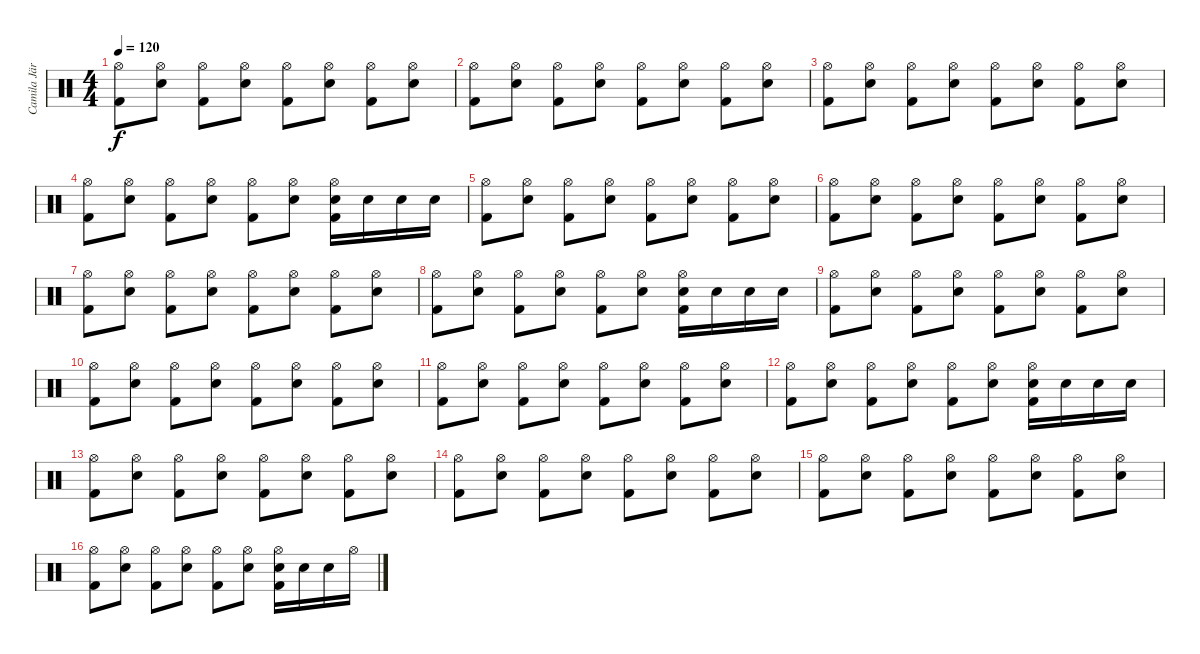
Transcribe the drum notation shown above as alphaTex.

\track ("Camila Jära" "Camila Jär") {instrument percussion}
\staff {score}
\articulation defaults
\ts (4 4)
\tempo 120
\clef neutral
\ks c
("Hi-Hat (open)" "Kick (hit) 2").8{dy f} ("Hi-Hat (open)" "Snare (hit) 2").8 ("Hi-Hat (open)" "Kick (hit) 2").8 ("Hi-Hat (open)" "Snare (hit) 2").8 ("Hi-Hat (open)" "Kick (hit) 2").8 ("Hi-Hat (open)" "Snare (hit) 2").8 ("Hi-Hat (open)" "Kick (hit) 2").8 ("Hi-Hat (open)" "Snare (hit) 2").8 |
("Hi-Hat (open)" "Kick (hit) 2").8 ("Hi-Hat (open)" "Snare (hit) 2").8 ("Hi-Hat (open)" "Kick (hit) 2").8 ("Hi-Hat (open)" "Snare (hit) 2").8 ("Hi-Hat (open)" "Kick (hit) 2").8 ("Hi-Hat (open)" "Snare (hit) 2").8 ("Hi-Hat (open)" "Kick (hit) 2").8 ("Hi-Hat (open)" "Snare (hit) 2").8 |
("Hi-Hat (open)" "Kick (hit) 2").8 ("Hi-Hat (open)" "Snare (hit) 2").8 ("Hi-Hat (open)" "Kick (hit) 2").8 ("Hi-Hat (open)" "Snare (hit) 2").8 ("Hi-Hat (open)" "Kick (hit) 2").8 ("Hi-Hat (open)" "Snare (hit) 2").8 ("Hi-Hat (open)" "Kick (hit) 2").8 ("Hi-Hat (open)" "Snare (hit) 2").8 |
("Hi-Hat (open)" "Kick (hit) 2").8 ("Hi-Hat (open)" "Snare (hit) 2").8 ("Hi-Hat (open)" "Kick (hit) 2").8 ("Hi-Hat (open)" "Snare (hit) 2").8 ("Hi-Hat (open)" "Kick (hit) 2").8 ("Hi-Hat (open)" "Snare (hit) 2").8 ("Hi-Hat (open)" "Snare (hit) 2" "Kick (hit) 2").16 "Snare (hit) 2".16 "Snare (hit) 2".16 "Snare (hit) 2".16 |
("Hi-Hat (open)" "Kick (hit) 2").8 ("Hi-Hat (open)" "Snare (hit) 2").8 ("Hi-Hat (open)" "Kick (hit) 2").8 ("Hi-Hat (open)" "Snare (hit) 2").8 ("Hi-Hat (open)" "Kick (hit) 2").8 ("Hi-Hat (open)" "Snare (hit) 2").8 ("Hi-Hat (open)" "Kick (hit) 2").8 ("Hi-Hat (open)" "Snare (hit) 2").8 |
("Hi-Hat (open)" "Kick (hit) 2").8 ("Hi-Hat (open)" "Snare (hit) 2").8 ("Hi-Hat (open)" "Kick (hit) 2").8 ("Hi-Hat (open)" "Snare (hit) 2").8 ("Hi-Hat (open)" "Kick (hit) 2").8 ("Hi-Hat (open)" "Snare (hit) 2").8 ("Hi-Hat (open)" "Kick (hit) 2").8 ("Hi-Hat (open)" "Snare (hit) 2").8 |
("Hi-Hat (open)" "Kick (hit) 2").8 ("Hi-Hat (open)" "Snare (hit) 2").8 ("Hi-Hat (open)" "Kick (hit) 2").8 ("Hi-Hat (open)" "Snare (hit) 2").8 ("Hi-Hat (open)" "Kick (hit) 2").8 ("Hi-Hat (open)" "Snare (hit) 2").8 ("Hi-Hat (open)" "Kick (hit) 2").8 ("Hi-Hat (open)" "Snare (hit) 2").8 |
("Hi-Hat (open)" "Kick (hit) 2").8 ("Hi-Hat (open)" "Snare (hit) 2").8 ("Hi-Hat (open)" "Kick (hit) 2").8 ("Hi-Hat (open)" "Snare (hit) 2").8 ("Hi-Hat (open)" "Kick (hit) 2").8 ("Hi-Hat (open)" "Snare (hit) 2").8 ("Hi-Hat (open)" "Snare (hit) 2" "Kick (hit) 2").16 "Snare (hit) 2".16 "Snare (hit) 2".16 "Snare (hit) 2".16 |
("Hi-Hat (open)" "Kick (hit) 2").8 ("Hi-Hat (open)" "Snare (hit) 2").8 ("Hi-Hat (open)" "Kick (hit) 2").8 ("Hi-Hat (open)" "Snare (hit) 2").8 ("Hi-Hat (open)" "Kick (hit) 2").8 ("Hi-Hat (open)" "Snare (hit) 2").8 ("Hi-Hat (open)" "Kick (hit) 2").8 ("Hi-Hat (open)" "Snare (hit) 2").8 |
("Hi-Hat (open)" "Kick (hit) 2").8 ("Hi-Hat (open)" "Snare (hit) 2").8 ("Hi-Hat (open)" "Kick (hit) 2").8 ("Hi-Hat (open)" "Snare (hit) 2").8 ("Hi-Hat (open)" "Kick (hit) 2").8 ("Hi-Hat (open)" "Snare (hit) 2").8 ("Hi-Hat (open)" "Kick (hit) 2").8 ("Hi-Hat (open)" "Snare (hit) 2").8 |
("Hi-Hat (open)" "Kick (hit) 2").8 ("Hi-Hat (open)" "Snare (hit) 2").8 ("Hi-Hat (open)" "Kick (hit) 2").8 ("Hi-Hat (open)" "Snare (hit) 2").8 ("Hi-Hat (open)" "Kick (hit) 2").8 ("Hi-Hat (open)" "Snare (hit) 2").8 ("Hi-Hat (open)" "Kick (hit) 2").8 ("Hi-Hat (open)" "Snare (hit) 2").8 |
("Hi-Hat (open)" "Kick (hit) 2").8 ("Hi-Hat (open)" "Snare (hit) 2").8 ("Hi-Hat (open)" "Kick (hit) 2").8 ("Hi-Hat (open)" "Snare (hit) 2").8 ("Hi-Hat (open)" "Kick (hit) 2").8 ("Hi-Hat (open)" "Snare (hit) 2").8 ("Hi-Hat (open)" "Snare (hit) 2" "Kick (hit) 2").16 "Snare (hit) 2".16 "Snare (hit) 2".16 "Snare (hit) 2".16 |
("Hi-Hat (open)" "Kick (hit) 2").8 ("Hi-Hat (open)" "Snare (hit) 2").8 ("Hi-Hat (open)" "Kick (hit) 2").8 ("Hi-Hat (open)" "Snare (hit) 2").8 ("Hi-Hat (open)" "Kick (hit) 2").8 ("Hi-Hat (open)" "Snare (hit) 2").8 ("Hi-Hat (open)" "Kick (hit) 2").8 ("Hi-Hat (open)" "Snare (hit) 2").8 |
("Hi-Hat (open)" "Kick (hit) 2").8 ("Hi-Hat (open)" "Snare (hit) 2").8 ("Hi-Hat (open)" "Kick (hit) 2").8 ("Hi-Hat (open)" "Snare (hit) 2").8 ("Hi-Hat (open)" "Kick (hit) 2").8 ("Hi-Hat (open)" "Snare (hit) 2").8 ("Hi-Hat (open)" "Kick (hit) 2").8 ("Hi-Hat (open)" "Snare (hit) 2").8 |
("Hi-Hat (open)" "Kick (hit) 2").8 ("Hi-Hat (open)" "Snare (hit) 2").8 ("Hi-Hat (open)" "Kick (hit) 2").8 ("Hi-Hat (open)" "Snare (hit) 2").8 ("Hi-Hat (open)" "Kick (hit) 2").8 ("Hi-Hat (open)" "Snare (hit) 2").8 ("Hi-Hat (open)" "Kick (hit) 2").8 ("Hi-Hat (open)" "Snare (hit) 2").8 |
("Hi-Hat (open)" "Kick (hit) 2").8 ("Hi-Hat (open)" "Snare (hit) 2").8 ("Hi-Hat (open)" "Kick (hit) 2").8 ("Hi-Hat (open)" "Snare (hit) 2").8 ("Hi-Hat (open)" "Kick (hit) 2").8 ("Hi-Hat (open)" "Snare (hit) 2").8 ("Hi-Hat (open)" "Snare (hit) 2" "Kick (hit) 2").16 "Snare (hit) 2".16 "Snare (hit) 2".16 "Hi-Hat (open)".16
